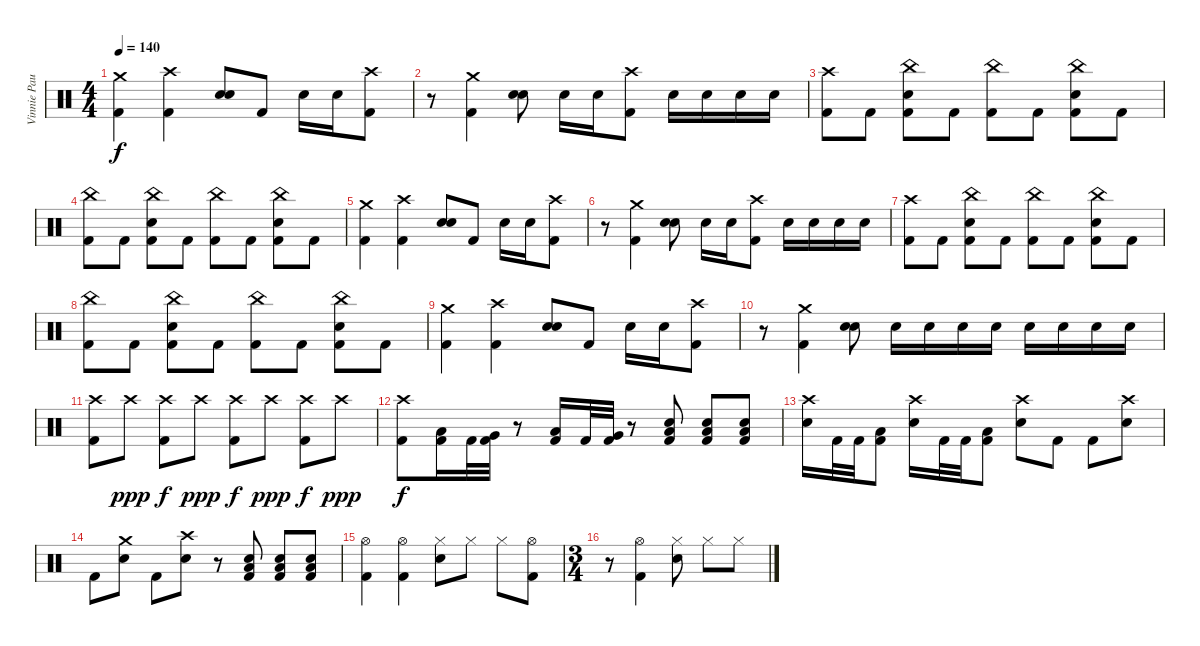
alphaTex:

\track ("Vinnie Paul" "Vinnie Pau") {instrument percussion}
\staff {score}
\articulation defaults
\ts (4 4)
\tempo 140
\clef neutral
\ks c
("Crash medium (hit)" "Kick (hit) 2").4{dy f} ("Crash high (hit)" "Kick (hit) 2").4 ("Snare (hit) 2" "Snare (hit) 2").8{bd 120} "Kick (hit) 2".8 "Snare (hit) 2".16 "Snare (hit) 2".16 ("Crash high (hit)" "Kick (hit) 2").8 |
r.8 ("Crash medium (hit)" "Kick (hit) 2").4 ("Snare (hit) 2" "Snare (hit) 2").8{bd 120} "Snare (hit) 2".16 "Snare (hit) 2".16 ("Crash high (hit)" "Kick (hit) 2").8 "Snare (hit) 2".16 "Snare (hit) 2".16 "Snare (hit) 2".16 "Snare (hit) 2".16 |
("Crash high (hit)" "Kick (hit) 2").8 "Kick (hit) 2".8 ("China (hit)" "Snare (hit) 2" "Kick (hit) 2").8 "Kick (hit) 2".8 ("China (hit)" "Kick (hit) 2").8 "Kick (hit) 2".8 ("China (hit)" "Snare (hit) 2" "Kick (hit) 2").8 "Kick (hit) 2".8 |
("China (hit)" "Kick (hit) 2").8 "Kick (hit) 2".8 ("China (hit)" "Snare (hit) 2" "Kick (hit) 2").8 "Kick (hit) 2".8 ("China (hit)" "Kick (hit) 2").8 "Kick (hit) 2".8 ("China (hit)" "Snare (hit) 2" "Kick (hit) 2").8 "Kick (hit) 2".8 |
("Crash medium (hit)" "Kick (hit) 2").4 ("Crash high (hit)" "Kick (hit) 2").4 ("Snare (hit) 2" "Snare (hit) 2").8{bd 120} "Kick (hit) 2".8 "Snare (hit) 2".16 "Snare (hit) 2".16 ("Crash high (hit)" "Kick (hit) 2").8 |
r.8 ("Crash medium (hit)" "Kick (hit) 2").4 ("Snare (hit) 2" "Snare (hit) 2").8{bd 120} "Snare (hit) 2".16 "Snare (hit) 2".16 ("Crash high (hit)" "Kick (hit) 2").8 "Snare (hit) 2".16 "Snare (hit) 2".16 "Snare (hit) 2".16 "Snare (hit) 2".16 |
("Crash high (hit)" "Kick (hit) 2").8 "Kick (hit) 2".8 ("China (hit)" "Snare (hit) 2" "Kick (hit) 2").8 "Kick (hit) 2".8 ("China (hit)" "Kick (hit) 2").8 "Kick (hit) 2".8 ("China (hit)" "Snare (hit) 2" "Kick (hit) 2").8 "Kick (hit) 2".8 |
("China (hit)" "Kick (hit) 2").8 "Kick (hit) 2".8 ("China (hit)" "Snare (hit) 2" "Kick (hit) 2").8 "Kick (hit) 2".8 ("China (hit)" "Kick (hit) 2").8 "Kick (hit) 2".8 ("China (hit)" "Snare (hit) 2" "Kick (hit) 2").8 "Kick (hit) 2".8 |
("Crash medium (hit)" "Kick (hit) 2").4 ("Crash high (hit)" "Kick (hit) 2").4 ("Snare (hit) 2" "Snare (hit) 2").8{bd 120} "Kick (hit) 2".8 "Snare (hit) 2".16 "Snare (hit) 2".16 ("Crash high (hit)" "Kick (hit) 2").8 |
r.8 ("Crash medium (hit)" "Kick (hit) 2").4 ("Snare (hit) 2" "Snare (hit) 2").8{bd 120} "Snare (hit) 2".16 "Snare (hit) 2".16 "Snare (hit) 2".16 "Snare (hit) 2".16 "Snare (hit) 2".16 "Snare (hit) 2".16 "Snare (hit) 2".16 "Snare (hit) 2".16 |
("Crash high (hit)" "Kick (hit) 2").8 "Crash high (hit)".8{dy ppp} ("Crash high (hit)" "Kick (hit) 2").8{dy f} "Crash high (hit)".8{dy ppp} ("Crash high (hit)" "Kick (hit) 2").8{dy f} "Crash high (hit)".8{dy ppp} ("Crash high (hit)" "Kick (hit) 2").8{dy f} "Crash high (hit)".8{dy ppp} |
("Crash high (hit)" "Kick (hit) 2").8{dy f} ("Low Tom (hit)" "Kick (hit) 2").16 "Kick (hit) 2".32 ("Very Low Tom (hit)" "Kick (hit) 2").32 r.8 ("Low Tom (hit)" "Kick (hit) 2").16 "Kick (hit) 2".32 ("Very Low Tom (hit)" "Kick (hit) 2").32 r.8 ("Low Floor Tom (hit)" "Snare (hit) 2" "Kick (hit) 2").8 ("Low Floor Tom (hit)" "Snare (hit) 2" "Kick (hit) 2").8 ("Low Floor Tom (hit)" "Snare (hit) 2" "Kick (hit) 2").8 |
("Crash high (hit)" "Snare (hit) 2").16 "Kick (hit) 2".32 "Kick (hit) 2".32 ("Low Tom (hit)" "Kick (hit) 2").8 ("Crash high (hit)" "Snare (hit) 2").16 "Kick (hit) 2".32 "Kick (hit) 2".32 ("Low Tom (hit)" "Kick (hit) 2").8 ("Crash high (hit)" "Snare (hit) 2").8 "Kick (hit) 2".8 "Kick (hit) 2".8 ("Crash high (hit)" "Snare (hit) 2").8 |
"Kick (hit) 2".8 ("Crash medium (hit)" "Snare (hit) 2").8 "Kick (hit) 2".8 ("Crash high (hit)" "Snare (hit) 2").8 r.8 ("Low Floor Tom (hit)" "Snare (hit) 2" "Kick (hit) 2").8 ("Low Floor Tom (hit)" "Snare (hit) 2" "Kick (hit) 2").8 ("Low Floor Tom (hit)" "Snare (hit) 2" "Kick (hit) 2").8 |
("Hi-Hat (open)" "Kick (hit) 2").4 ("Hi-Hat (open)" "Kick (hit) 2").4 ("Hi-Hat (closed)" "Snare (hit) 2").8 "Hi-Hat (closed)".8 "Hi-Hat (closed)".8 ("Hi-Hat (open)" "Kick (hit) 2").8 |
\ts (3 4)
r.8 ("Hi-Hat (open)" "Kick (hit) 2").4 ("Hi-Hat (closed)" "Snare (hit) 2").8 "Hi-Hat (closed)".8 "Hi-Hat (closed)".8
